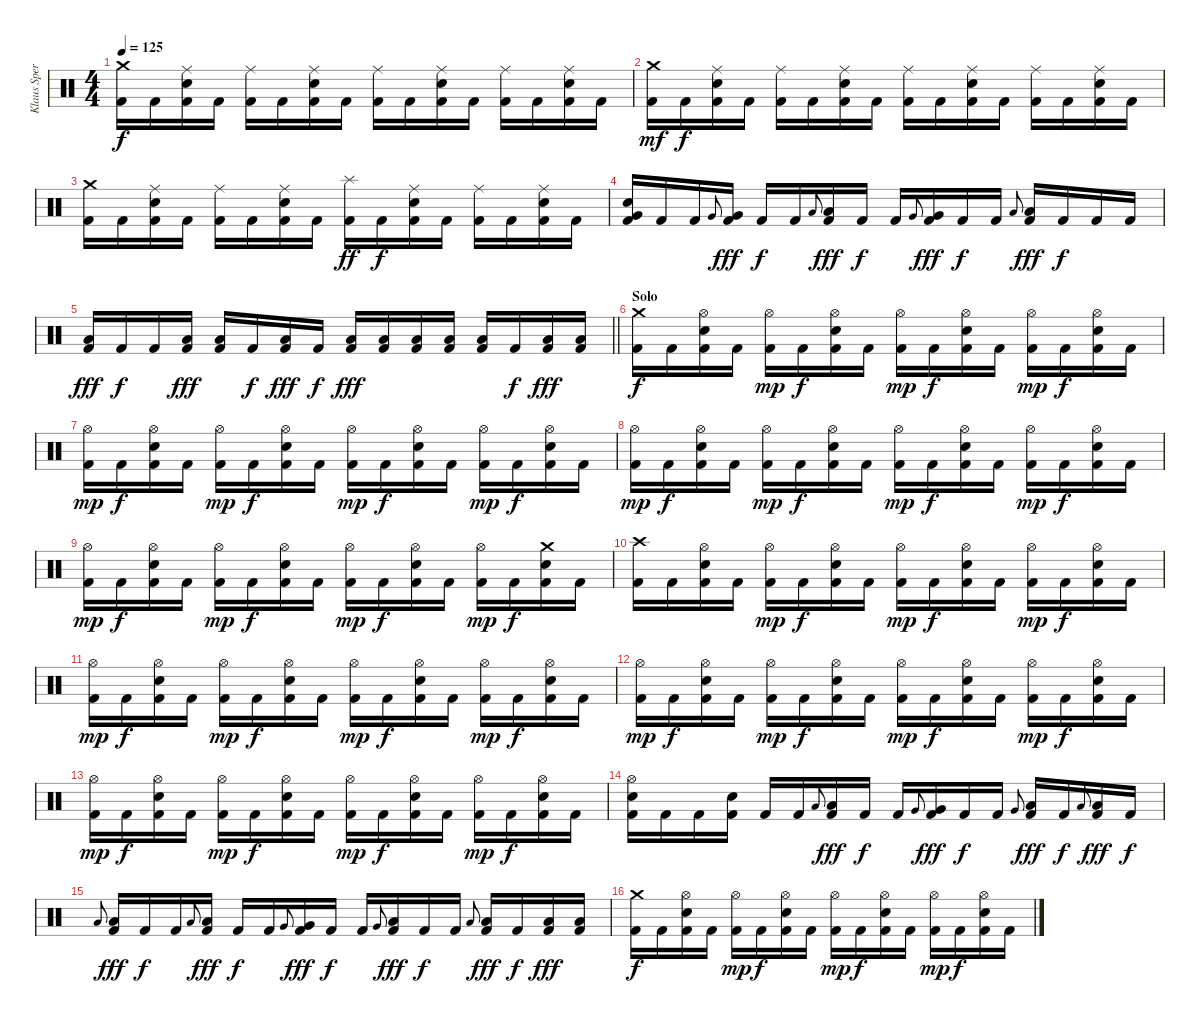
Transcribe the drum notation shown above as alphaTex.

\track ("Klaus Sperling" "Klaus Sper") {instrument percussion}
\staff {score}
\articulation defaults
\ts (4 4)
\tempo 125
\clef neutral
\ks c
("Crash medium (hit)" "Kick (hit) 2").16{dy f} "Kick (hit) 2".16 ("Ride (middle)" "Electric Snare (hit)" "Kick (hit) 2").16 "Kick (hit) 2".16 ("Ride (middle)" "Kick (hit) 2").16 "Kick (hit) 2".16 ("Ride (middle)" "Electric Snare (hit)" "Kick (hit) 2").16 "Kick (hit) 2".16 ("Ride (middle)" "Kick (hit) 2").16 "Kick (hit) 2".16 ("Ride (middle)" "Electric Snare (hit)" "Kick (hit) 2").16 "Kick (hit) 2".16 ("Ride (middle)" "Kick (hit) 2").16 "Kick (hit) 2".16 ("Ride (middle)" "Electric Snare (hit)" "Kick (hit) 2").16 "Kick (hit) 2".16 |
("Crash medium (hit)" "Kick (hit) 2").16{dy mf} "Kick (hit) 2".16{dy f} ("Ride (middle)" "Electric Snare (hit)" "Kick (hit) 2").16 "Kick (hit) 2".16 ("Ride (middle)" "Kick (hit) 2").16 "Kick (hit) 2".16 ("Ride (middle)" "Electric Snare (hit)" "Kick (hit) 2").16 "Kick (hit) 2".16 ("Ride (middle)" "Kick (hit) 2").16 "Kick (hit) 2".16 ("Ride (middle)" "Electric Snare (hit)" "Kick (hit) 2").16 "Kick (hit) 2".16 ("Ride (middle)" "Kick (hit) 2").16 "Kick (hit) 2".16 ("Ride (middle)" "Electric Snare (hit)" "Kick (hit) 2").16 "Kick (hit) 2".16 |
("Crash medium (hit)" "Kick (hit) 2").16 "Kick (hit) 2".16 ("Ride (middle)" "Electric Snare (hit)" "Kick (hit) 2").16 "Kick (hit) 2".16 ("Ride (middle)" "Kick (hit) 2").16 "Kick (hit) 2".16 ("Ride (middle)" "Electric Snare (hit)" "Kick (hit) 2").16 "Kick (hit) 2".16 ("Splash (hit)" "Kick (hit) 2").16{dy ff} "Kick (hit) 2".16{dy f} ("Ride (middle)" "Electric Snare (hit)" "Kick (hit) 2").16 "Kick (hit) 2".16 ("Ride (middle)" "Kick (hit) 2").16 "Kick (hit) 2".16 ("Ride (middle)" "Electric Snare (hit)" "Kick (hit) 2").16 "Kick (hit) 2".16 |
("Electric Snare (hit)" "Very Low Tom (hit)" "Kick (hit) 2").16 "Kick (hit) 2".16 "Kick (hit) 2".16 "Very Low Tom (hit)".8{gr onbeat} ("Very Low Tom (hit)" "Kick (hit) 2").16{dy fff} "Kick (hit) 2".16{dy f} "Kick (hit) 2".16 "Low Tom (hit)".8{gr onbeat} ("Low Tom (hit)" "Kick (hit) 2").16{dy fff} "Kick (hit) 2".16{dy f} "Kick (hit) 2".16 "Very Low Tom (hit)".8{gr onbeat} ("Very Low Tom (hit)" "Kick (hit) 2").16{dy fff} "Kick (hit) 2".16{dy f} "Kick (hit) 2".16 "Low Floor Tom (hit)".8{gr onbeat} ("Low Floor Tom (hit)" "Kick (hit) 2").16{dy fff} "Kick (hit) 2".16{dy f} "Kick (hit) 2".16 "Kick (hit) 2".16 |
\barLineRight lightlight
("Low Tom (hit)" "Kick (hit) 2").16{dy fff} "Kick (hit) 2".16{dy f} "Kick (hit) 2".16 ("Low Tom (hit)" "Kick (hit) 2").16{dy fff} ("Low Tom (hit)" "Kick (hit) 2").16 "Kick (hit) 2".16{dy f} ("Low Tom (hit)" "Kick (hit) 2").16{dy fff} "Kick (hit) 2".16{dy f} ("Low Tom (hit)" "Kick (hit) 2").16{dy fff} ("Low Tom (hit)" "Kick (hit) 2").16 ("Low Tom (hit)" "Kick (hit) 2").16 ("Low Tom (hit)" "Kick (hit) 2").16 ("Low Tom (hit)" "Kick (hit) 2").16 "Kick (hit) 2".16{dy f} ("Low Tom (hit)" "Kick (hit) 2").16{dy fff} ("Low Tom (hit)" "Kick (hit) 2").16 |
\section ("" "Solo")
("Crash medium (hit)" "Kick (hit) 2").16{dy f} "Kick (hit) 2".16 ("Hi-Hat (open)" "Electric Snare (hit)" "Kick (hit) 2").16 "Kick (hit) 2".16 ("Hi-Hat (open)" "Kick (hit) 2").16{dy mp} "Kick (hit) 2".16{dy f} ("Hi-Hat (open)" "Electric Snare (hit)" "Kick (hit) 2").16 "Kick (hit) 2".16 ("Hi-Hat (open)" "Kick (hit) 2").16{dy mp} "Kick (hit) 2".16{dy f} ("Hi-Hat (open)" "Electric Snare (hit)" "Kick (hit) 2").16 "Kick (hit) 2".16 ("Hi-Hat (open)" "Kick (hit) 2").16{dy mp} "Kick (hit) 2".16{dy f} ("Hi-Hat (open)" "Electric Snare (hit)" "Kick (hit) 2").16 "Kick (hit) 2".16 |
("Hi-Hat (open)" "Kick (hit) 2").16{dy mp} "Kick (hit) 2".16{dy f} ("Hi-Hat (open)" "Electric Snare (hit)" "Kick (hit) 2").16 "Kick (hit) 2".16 ("Hi-Hat (open)" "Kick (hit) 2").16{dy mp} "Kick (hit) 2".16{dy f} ("Hi-Hat (open)" "Electric Snare (hit)" "Kick (hit) 2").16 "Kick (hit) 2".16 ("Hi-Hat (open)" "Kick (hit) 2").16{dy mp} "Kick (hit) 2".16{dy f} ("Hi-Hat (open)" "Electric Snare (hit)" "Kick (hit) 2").16 "Kick (hit) 2".16 ("Hi-Hat (open)" "Kick (hit) 2").16{dy mp} "Kick (hit) 2".16{dy f} ("Hi-Hat (open)" "Electric Snare (hit)" "Kick (hit) 2").16 "Kick (hit) 2".16 |
("Hi-Hat (open)" "Kick (hit) 2").16{dy mp} "Kick (hit) 2".16{dy f} ("Hi-Hat (open)" "Electric Snare (hit)" "Kick (hit) 2").16 "Kick (hit) 2".16 ("Hi-Hat (open)" "Kick (hit) 2").16{dy mp} "Kick (hit) 2".16{dy f} ("Hi-Hat (open)" "Electric Snare (hit)" "Kick (hit) 2").16 "Kick (hit) 2".16 ("Hi-Hat (open)" "Kick (hit) 2").16{dy mp} "Kick (hit) 2".16{dy f} ("Hi-Hat (open)" "Electric Snare (hit)" "Kick (hit) 2").16 "Kick (hit) 2".16 ("Hi-Hat (open)" "Kick (hit) 2").16{dy mp} "Kick (hit) 2".16{dy f} ("Hi-Hat (open)" "Electric Snare (hit)" "Kick (hit) 2").16 "Kick (hit) 2".16 |
("Hi-Hat (open)" "Kick (hit) 2").16{dy mp} "Kick (hit) 2".16{dy f} ("Hi-Hat (open)" "Electric Snare (hit)" "Kick (hit) 2").16 "Kick (hit) 2".16 ("Hi-Hat (open)" "Kick (hit) 2").16{dy mp} "Kick (hit) 2".16{dy f} ("Hi-Hat (open)" "Electric Snare (hit)" "Kick (hit) 2").16 "Kick (hit) 2".16 ("Hi-Hat (open)" "Kick (hit) 2").16{dy mp} "Kick (hit) 2".16{dy f} ("Hi-Hat (open)" "Electric Snare (hit)" "Kick (hit) 2").16 "Kick (hit) 2".16 ("Hi-Hat (open)" "Kick (hit) 2").16{dy mp} "Kick (hit) 2".16{dy f} ("Crash medium (hit)" "Electric Snare (hit)" "Kick (hit) 2").16 "Kick (hit) 2".16 |
("Crash high (hit)" "Kick (hit) 2").16 "Kick (hit) 2".16 ("Hi-Hat (open)" "Electric Snare (hit)" "Kick (hit) 2").16 "Kick (hit) 2".16 ("Hi-Hat (open)" "Kick (hit) 2").16{dy mp} "Kick (hit) 2".16{dy f} ("Hi-Hat (open)" "Electric Snare (hit)" "Kick (hit) 2").16 "Kick (hit) 2".16 ("Hi-Hat (open)" "Kick (hit) 2").16{dy mp} "Kick (hit) 2".16{dy f} ("Hi-Hat (open)" "Electric Snare (hit)" "Kick (hit) 2").16 "Kick (hit) 2".16 ("Hi-Hat (open)" "Kick (hit) 2").16{dy mp} "Kick (hit) 2".16{dy f} ("Hi-Hat (open)" "Electric Snare (hit)" "Kick (hit) 2").16 "Kick (hit) 2".16 |
("Hi-Hat (open)" "Kick (hit) 2").16{dy mp} "Kick (hit) 2".16{dy f} ("Hi-Hat (open)" "Electric Snare (hit)" "Kick (hit) 2").16 "Kick (hit) 2".16 ("Hi-Hat (open)" "Kick (hit) 2").16{dy mp} "Kick (hit) 2".16{dy f} ("Hi-Hat (open)" "Electric Snare (hit)" "Kick (hit) 2").16 "Kick (hit) 2".16 ("Hi-Hat (open)" "Kick (hit) 2").16{dy mp} "Kick (hit) 2".16{dy f} ("Hi-Hat (open)" "Electric Snare (hit)" "Kick (hit) 2").16 "Kick (hit) 2".16 ("Hi-Hat (open)" "Kick (hit) 2").16{dy mp} "Kick (hit) 2".16{dy f} ("Hi-Hat (open)" "Electric Snare (hit)" "Kick (hit) 2").16 "Kick (hit) 2".16 |
("Hi-Hat (open)" "Kick (hit) 2").16{dy mp} "Kick (hit) 2".16{dy f} ("Hi-Hat (open)" "Electric Snare (hit)" "Kick (hit) 2").16 "Kick (hit) 2".16 ("Hi-Hat (open)" "Kick (hit) 2").16{dy mp} "Kick (hit) 2".16{dy f} ("Hi-Hat (open)" "Electric Snare (hit)" "Kick (hit) 2").16 "Kick (hit) 2".16 ("Hi-Hat (open)" "Kick (hit) 2").16{dy mp} "Kick (hit) 2".16{dy f} ("Hi-Hat (open)" "Electric Snare (hit)" "Kick (hit) 2").16 "Kick (hit) 2".16 ("Hi-Hat (open)" "Kick (hit) 2").16{dy mp} "Kick (hit) 2".16{dy f} ("Hi-Hat (open)" "Electric Snare (hit)" "Kick (hit) 2").16 "Kick (hit) 2".16 |
("Hi-Hat (open)" "Kick (hit) 2").16{dy mp} "Kick (hit) 2".16{dy f} ("Hi-Hat (open)" "Electric Snare (hit)" "Kick (hit) 2").16 "Kick (hit) 2".16 ("Hi-Hat (open)" "Kick (hit) 2").16{dy mp} "Kick (hit) 2".16{dy f} ("Hi-Hat (open)" "Electric Snare (hit)" "Kick (hit) 2").16 "Kick (hit) 2".16 ("Hi-Hat (open)" "Kick (hit) 2").16{dy mp} "Kick (hit) 2".16{dy f} ("Hi-Hat (open)" "Electric Snare (hit)" "Kick (hit) 2").16 "Kick (hit) 2".16 ("Hi-Hat (open)" "Kick (hit) 2").16{dy mp} "Kick (hit) 2".16{dy f} ("Hi-Hat (open)" "Electric Snare (hit)" "Kick (hit) 2").16 "Kick (hit) 2".16 |
("Hi-Hat (open)" "Electric Snare (hit)" "Kick (hit) 2").16 "Kick (hit) 2".16 "Kick (hit) 2".16 ("Electric Snare (hit)" "Kick (hit) 2").16 "Kick (hit) 2".16 "Kick (hit) 2".16 "Low Tom (hit)".8{gr onbeat} ("Low Tom (hit)" "Kick (hit) 2").16{dy fff} "Kick (hit) 2".16{dy f} "Kick (hit) 2".16 "Very Low Tom (hit)".8{gr onbeat} ("Very Low Tom (hit)" "Kick (hit) 2").16{dy fff} "Kick (hit) 2".16{dy f} "Kick (hit) 2".16 "Very Low Tom (hit)".8{gr onbeat} ("Low Floor Tom (hit)" "Kick (hit) 2").16{dy fff} "Kick (hit) 2".16{dy f} "Low Floor Tom (hit)".8{gr onbeat} ("Low Floor Tom (hit)" "Kick (hit) 2").16{dy fff} "Kick (hit) 2".16{dy f} |
"Low Tom (hit)".8{gr onbeat} ("Low Tom (hit)" "Kick (hit) 2").16{dy fff} "Kick (hit) 2".16{dy f} "Kick (hit) 2".16 "Low Tom (hit)".8{gr onbeat} ("Low Tom (hit)" "Kick (hit) 2").16{dy fff} "Kick (hit) 2".16{dy f} "Kick (hit) 2".16 "Very Low Tom (hit)".8{gr onbeat} ("Very Low Tom (hit)" "Kick (hit) 2").16{dy fff} "Kick (hit) 2".16{dy f} "Kick (hit) 2".16 "Very Low Tom (hit)".8{gr onbeat} ("Low Floor Tom (hit)" "Kick (hit) 2").16{dy fff} "Kick (hit) 2".16{dy f} "Kick (hit) 2".16 "Low Floor Tom (hit)".8{gr onbeat} ("Low Floor Tom (hit)" "Kick (hit) 2").16{dy fff} "Kick (hit) 2".16{dy f} ("Low Floor Tom (hit)" "Kick (hit) 2").16{dy fff} ("Low Floor Tom (hit)" "Kick (hit) 2").16 |
("Crash medium (hit)" "Kick (hit) 2").16{dy f} "Kick (hit) 2".16 ("Hi-Hat (open)" "Electric Snare (hit)" "Kick (hit) 2").16 "Kick (hit) 2".16 ("Hi-Hat (open)" "Kick (hit) 2").16{dy mp} "Kick (hit) 2".16{dy f} ("Hi-Hat (open)" "Electric Snare (hit)" "Kick (hit) 2").16 "Kick (hit) 2".16 ("Hi-Hat (open)" "Kick (hit) 2").16{dy mp} "Kick (hit) 2".16{dy f} ("Hi-Hat (open)" "Electric Snare (hit)" "Kick (hit) 2").16 "Kick (hit) 2".16 ("Hi-Hat (open)" "Kick (hit) 2").16{dy mp} "Kick (hit) 2".16{dy f} ("Hi-Hat (open)" "Electric Snare (hit)" "Kick (hit) 2").16 "Kick (hit) 2".16
